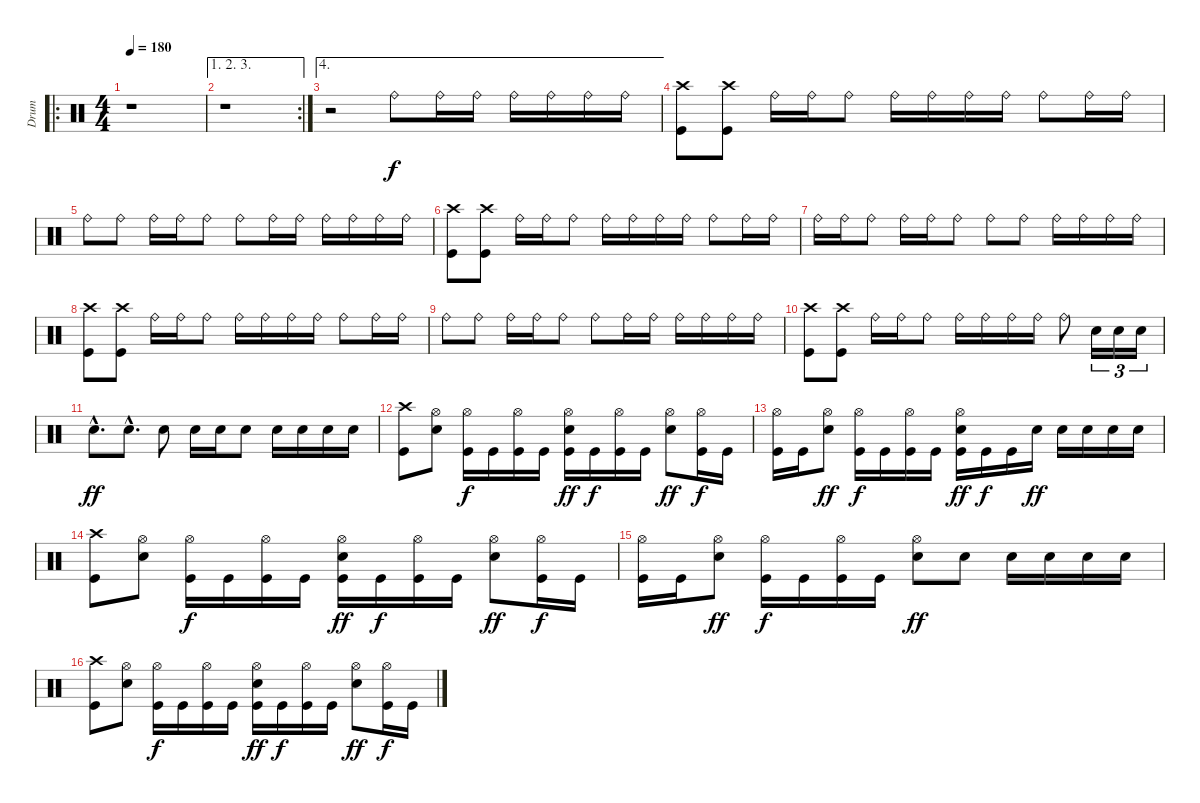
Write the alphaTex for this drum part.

\track ("Drum" "Drum") {instrument percussion}
\staff {score}
\articulation defaults
\ro
\ts (4 4)
\tempo 180
\clef neutral
\ks c
r.1{dy f} |
\ae (1 2 3)
\rc 2
r.1 |
\ae 4
r.2 "Ride (bell)".8 "Ride (bell)".16 "Ride (bell)".16 "Ride (bell)".16 "Ride (bell)".16 "Ride (bell)".16 "Ride (bell)".16 |
("Kick (hit)" "Crash high (hit)").8 ("Kick (hit)" "Crash high (hit)").8 "Ride (bell)".16 "Ride (bell)".16 "Ride (bell)".8 "Ride (bell)".16 "Ride (bell)".16 "Ride (bell)".16 "Ride (bell)".16 "Ride (bell)".8 "Ride (bell)".16 "Ride (bell)".16 |
"Ride (bell)".8 "Ride (bell)".8 "Ride (bell)".16 "Ride (bell)".16 "Ride (bell)".8 "Ride (bell)".8 "Ride (bell)".16 "Ride (bell)".16 "Ride (bell)".16 "Ride (bell)".16 "Ride (bell)".16 "Ride (bell)".16 |
("Kick (hit)" "Crash high (hit)").8 ("Kick (hit)" "Crash high (hit)").8 "Ride (bell)".16 "Ride (bell)".16 "Ride (bell)".8 "Ride (bell)".16 "Ride (bell)".16 "Ride (bell)".16 "Ride (bell)".16 "Ride (bell)".8 "Ride (bell)".16 "Ride (bell)".16 |
"Ride (bell)".16 "Ride (bell)".16 "Ride (bell)".8 "Ride (bell)".16 "Ride (bell)".16 "Ride (bell)".8 "Ride (bell)".8 "Ride (bell)".8 "Ride (bell)".16 "Ride (bell)".16 "Ride (bell)".16 "Ride (bell)".16 |
("Kick (hit)" "Crash high (hit)").8 ("Kick (hit)" "Crash high (hit)").8 "Ride (bell)".16 "Ride (bell)".16 "Ride (bell)".8 "Ride (bell)".16 "Ride (bell)".16 "Ride (bell)".16 "Ride (bell)".16 "Ride (bell)".8 "Ride (bell)".16 "Ride (bell)".16 |
"Ride (bell)".8 "Ride (bell)".8 "Ride (bell)".16 "Ride (bell)".16 "Ride (bell)".8 "Ride (bell)".8 "Ride (bell)".16 "Ride (bell)".16 "Ride (bell)".16 "Ride (bell)".16 "Ride (bell)".16 "Ride (bell)".16 |
("Kick (hit)" "Crash high (hit)").8 ("Kick (hit)" "Crash high (hit)").8 "Ride (bell)".16 "Ride (bell)".16 "Ride (bell)".8 "Ride (bell)".16 "Ride (bell)".16 "Ride (bell)".16 "Ride (bell)".16 "Ride (bell)".8 "Electric Snare (hit)".16{tu (3 2)} "Electric Snare (hit)".16{tu (3 2)} "Electric Snare (hit)".16{tu (3 2)} |
"Electric Snare (hit)"{hac}.8{d dy ff} "Electric Snare (hit)"{hac}.8{d} "Electric Snare (hit)".8 "Electric Snare (hit)".16 "Electric Snare (hit)".16 "Electric Snare (hit)".8 "Electric Snare (hit)".16 "Electric Snare (hit)".16 "Electric Snare (hit)".16 "Electric Snare (hit)".16 |
("Kick (hit)" "Crash high (hit)").8 ("Electric Snare (hit)" "Hi-Hat (open)").8 ("Kick (hit)" "Hi-Hat (open)").16{dy f} "Kick (hit)".16 ("Kick (hit)" "Hi-Hat (open)").16 "Kick (hit)".16 ("Kick (hit)" "Electric Snare (hit)" "Hi-Hat (open)").16{dy ff} "Kick (hit)".16{dy f} ("Kick (hit)" "Hi-Hat (open)").16 "Kick (hit)".16 ("Electric Snare (hit)" "Hi-Hat (open)").8{dy ff} ("Kick (hit)" "Hi-Hat (open)").16{dy f} "Kick (hit)".16 |
("Kick (hit)" "Hi-Hat (open)").16 "Kick (hit)".16 ("Electric Snare (hit)" "Hi-Hat (open)").8{dy ff} ("Kick (hit)" "Hi-Hat (open)").16{dy f} "Kick (hit)".16 ("Kick (hit)" "Hi-Hat (open)").16 "Kick (hit)".16 ("Kick (hit)" "Electric Snare (hit)" "Hi-Hat (open)").16{dy ff} "Kick (hit)".16{dy f} "Kick (hit)".16 "Electric Snare (hit)".16{dy ff} "Electric Snare (hit)".16 "Electric Snare (hit)".16 "Electric Snare (hit)".16 "Electric Snare (hit)".16 |
("Kick (hit)" "Crash high (hit)").8 ("Electric Snare (hit)" "Hi-Hat (open)").8 ("Kick (hit)" "Hi-Hat (open)").16{dy f} "Kick (hit)".16 ("Kick (hit)" "Hi-Hat (open)").16 "Kick (hit)".16 ("Kick (hit)" "Electric Snare (hit)" "Hi-Hat (open)").16{dy ff} "Kick (hit)".16{dy f} ("Kick (hit)" "Hi-Hat (open)").16 "Kick (hit)".16 ("Electric Snare (hit)" "Hi-Hat (open)").8{dy ff} ("Kick (hit)" "Hi-Hat (open)").16{dy f} "Kick (hit)".16 |
("Kick (hit)" "Hi-Hat (open)").16 "Kick (hit)".16 ("Electric Snare (hit)" "Hi-Hat (open)").8{dy ff} ("Kick (hit)" "Hi-Hat (open)").16{dy f} "Kick (hit)".16 ("Kick (hit)" "Hi-Hat (open)").16 "Kick (hit)".16 ("Electric Snare (hit)" "Hi-Hat (open)").8{dy ff} "Electric Snare (hit)".8 "Electric Snare (hit)".16 "Electric Snare (hit)".16 "Electric Snare (hit)".16 "Electric Snare (hit)".16 |
("Kick (hit)" "Crash high (hit)").8 ("Electric Snare (hit)" "Hi-Hat (open)").8 ("Kick (hit)" "Hi-Hat (open)").16{dy f} "Kick (hit)".16 ("Kick (hit)" "Hi-Hat (open)").16 "Kick (hit)".16 ("Kick (hit)" "Electric Snare (hit)" "Hi-Hat (open)").16{dy ff} "Kick (hit)".16{dy f} ("Kick (hit)" "Hi-Hat (open)").16 "Kick (hit)".16 ("Electric Snare (hit)" "Hi-Hat (open)").8{dy ff} ("Kick (hit)" "Hi-Hat (open)").16{dy f} "Kick (hit)".16
